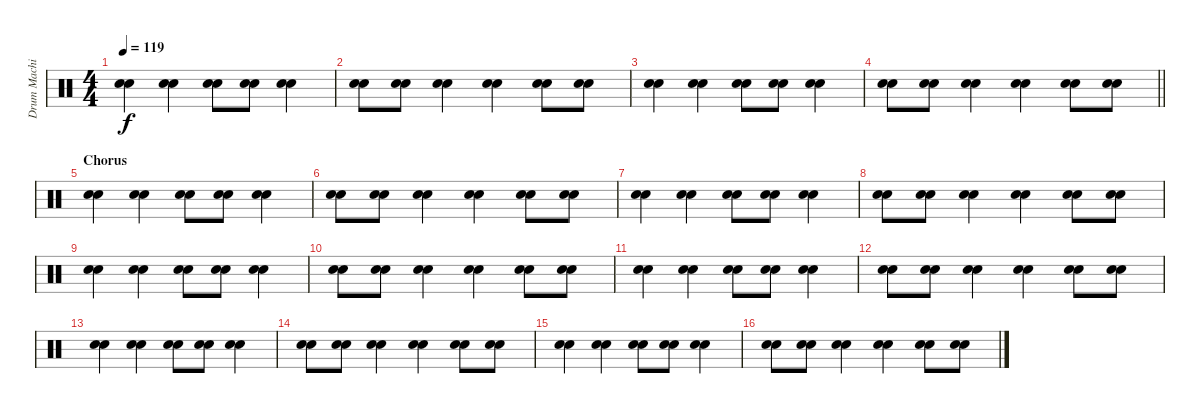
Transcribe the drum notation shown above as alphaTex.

\track ("Drum Machine" "Drum Machi") {instrument percussion}
\staff {score}
\articulation defaults
\ts (4 4)
\tempo 119
\clef neutral
\ks c
("Hand Clap (hit)" "Hand Clap (hit)").4{dy f} ("Hand Clap (hit)" "Hand Clap (hit)").4 ("Hand Clap (hit)" "Hand Clap (hit)").8 ("Hand Clap (hit)" "Hand Clap (hit)").8 ("Hand Clap (hit)" "Hand Clap (hit)").4 |
("Hand Clap (hit)" "Hand Clap (hit)").8 ("Hand Clap (hit)" "Hand Clap (hit)").8 ("Hand Clap (hit)" "Hand Clap (hit)").4 ("Hand Clap (hit)" "Hand Clap (hit)").4 ("Hand Clap (hit)" "Hand Clap (hit)").8 ("Hand Clap (hit)" "Hand Clap (hit)").8 |
("Hand Clap (hit)" "Hand Clap (hit)").4 ("Hand Clap (hit)" "Hand Clap (hit)").4 ("Hand Clap (hit)" "Hand Clap (hit)").8 ("Hand Clap (hit)" "Hand Clap (hit)").8 ("Hand Clap (hit)" "Hand Clap (hit)").4 |
\barLineRight lightlight
("Hand Clap (hit)" "Hand Clap (hit)").8 ("Hand Clap (hit)" "Hand Clap (hit)").8 ("Hand Clap (hit)" "Hand Clap (hit)").4 ("Hand Clap (hit)" "Hand Clap (hit)").4 ("Hand Clap (hit)" "Hand Clap (hit)").8 ("Hand Clap (hit)" "Hand Clap (hit)").8 |
\section ("" "Chorus")
("Hand Clap (hit)" "Hand Clap (hit)").4 ("Hand Clap (hit)" "Hand Clap (hit)").4 ("Hand Clap (hit)" "Hand Clap (hit)").8 ("Hand Clap (hit)" "Hand Clap (hit)").8 ("Hand Clap (hit)" "Hand Clap (hit)").4 |
("Hand Clap (hit)" "Hand Clap (hit)").8 ("Hand Clap (hit)" "Hand Clap (hit)").8 ("Hand Clap (hit)" "Hand Clap (hit)").4 ("Hand Clap (hit)" "Hand Clap (hit)").4 ("Hand Clap (hit)" "Hand Clap (hit)").8 ("Hand Clap (hit)" "Hand Clap (hit)").8 |
("Hand Clap (hit)" "Hand Clap (hit)").4 ("Hand Clap (hit)" "Hand Clap (hit)").4 ("Hand Clap (hit)" "Hand Clap (hit)").8 ("Hand Clap (hit)" "Hand Clap (hit)").8 ("Hand Clap (hit)" "Hand Clap (hit)").4 |
("Hand Clap (hit)" "Hand Clap (hit)").8 ("Hand Clap (hit)" "Hand Clap (hit)").8 ("Hand Clap (hit)" "Hand Clap (hit)").4 ("Hand Clap (hit)" "Hand Clap (hit)").4 ("Hand Clap (hit)" "Hand Clap (hit)").8 ("Hand Clap (hit)" "Hand Clap (hit)").8 |
("Hand Clap (hit)" "Hand Clap (hit)").4 ("Hand Clap (hit)" "Hand Clap (hit)").4 ("Hand Clap (hit)" "Hand Clap (hit)").8 ("Hand Clap (hit)" "Hand Clap (hit)").8 ("Hand Clap (hit)" "Hand Clap (hit)").4 |
("Hand Clap (hit)" "Hand Clap (hit)").8 ("Hand Clap (hit)" "Hand Clap (hit)").8 ("Hand Clap (hit)" "Hand Clap (hit)").4 ("Hand Clap (hit)" "Hand Clap (hit)").4 ("Hand Clap (hit)" "Hand Clap (hit)").8 ("Hand Clap (hit)" "Hand Clap (hit)").8 |
("Hand Clap (hit)" "Hand Clap (hit)").4 ("Hand Clap (hit)" "Hand Clap (hit)").4 ("Hand Clap (hit)" "Hand Clap (hit)").8 ("Hand Clap (hit)" "Hand Clap (hit)").8 ("Hand Clap (hit)" "Hand Clap (hit)").4 |
("Hand Clap (hit)" "Hand Clap (hit)").8 ("Hand Clap (hit)" "Hand Clap (hit)").8 ("Hand Clap (hit)" "Hand Clap (hit)").4 ("Hand Clap (hit)" "Hand Clap (hit)").4 ("Hand Clap (hit)" "Hand Clap (hit)").8 ("Hand Clap (hit)" "Hand Clap (hit)").8 |
("Hand Clap (hit)" "Hand Clap (hit)").4 ("Hand Clap (hit)" "Hand Clap (hit)").4 ("Hand Clap (hit)" "Hand Clap (hit)").8 ("Hand Clap (hit)" "Hand Clap (hit)").8 ("Hand Clap (hit)" "Hand Clap (hit)").4 |
("Hand Clap (hit)" "Hand Clap (hit)").8 ("Hand Clap (hit)" "Hand Clap (hit)").8 ("Hand Clap (hit)" "Hand Clap (hit)").4 ("Hand Clap (hit)" "Hand Clap (hit)").4 ("Hand Clap (hit)" "Hand Clap (hit)").8 ("Hand Clap (hit)" "Hand Clap (hit)").8 |
("Hand Clap (hit)" "Hand Clap (hit)").4 ("Hand Clap (hit)" "Hand Clap (hit)").4 ("Hand Clap (hit)" "Hand Clap (hit)").8 ("Hand Clap (hit)" "Hand Clap (hit)").8 ("Hand Clap (hit)" "Hand Clap (hit)").4 |
("Hand Clap (hit)" "Hand Clap (hit)").8 ("Hand Clap (hit)" "Hand Clap (hit)").8 ("Hand Clap (hit)" "Hand Clap (hit)").4 ("Hand Clap (hit)" "Hand Clap (hit)").4 ("Hand Clap (hit)" "Hand Clap (hit)").8 ("Hand Clap (hit)" "Hand Clap (hit)").8
